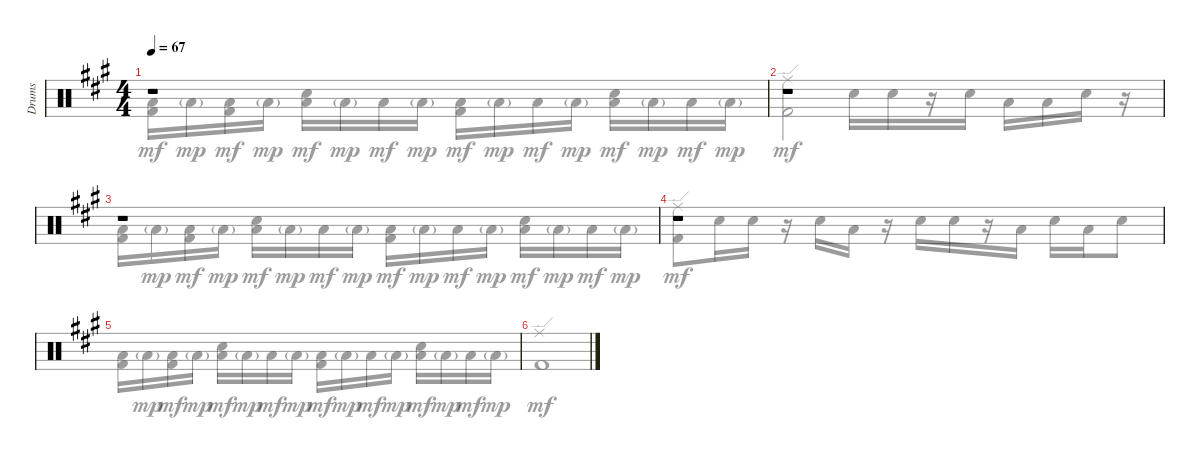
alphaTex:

\bracketExtendMode groupsimilarinstruments
\otherSystemsTrackNameOrientation horizontal
\track ("Drumkit" "Drums") {instrument percussion}
\staff {score}
\articulation defaults
\voice
\ts (4 4)
\tempo 67
\clef neutral
\scale
0.333333
\ks a
r.1{dy mf} |
\scale
0.333333 r.1 |
\scale
0.333333 r.1 |
\scale
0.333333 r.1 |
|
\voice
\clef neutral
\ottava regular
\simile none
\scale
0.333333
\ks a
("Kick (hit) 2"{acc forcenatural} "Low Tom (hit)"{acc forcenatural}).16{dy mf} "Low Tom (hit)"{g acc forcenatural}.16{dy mp} ("Kick (hit) 2"{acc forcenatural} "Low Tom (hit)"{acc forcenatural}).16{dy mf} "Low Tom (hit)"{g acc forcenatural}.16{dy mp} ("Low Tom (hit)"{acc forcenatural} "Snare (hit) 2"{acc forcenatural}).16{dy mf} "Low Tom (hit)"{g acc forcenatural}.16{dy mp} "Low Tom (hit)"{acc forcenatural}.16{dy mf} "Low Tom (hit)"{g acc forcenatural}.16{dy mp} ("Kick (hit) 2"{acc forcenatural} "Low Tom (hit)"{acc forcenatural}).16{dy mf} "Low Tom (hit)"{g acc forcenatural}.16{dy mp} "Low Tom (hit)"{acc forcenatural}.16{dy mf} "Low Tom (hit)"{g acc forcenatural}.16{dy mp} ("Low Tom (hit)"{acc forcenatural} "Snare (hit) 2"{acc forcenatural}).16{dy mf} "Low Tom (hit)"{g acc forcenatural}.16{dy mp} "Low Tom (hit)"{acc forcenatural}.16{dy mf} "Low Tom (hit)"{g acc forcenatural}.16{dy mp} |
\scale
0.333333 ("Kick (hit) 2"{acc forcenatural} "Ride (edge)"{acc forcenatural}).2{dy mf} "Snare (hit) 2"{acc forcenatural}.16 "Snare (hit) 2"{acc forcenatural}.16 r.16 "Snare (hit) 2"{acc forcenatural}.16 "Low Tom (hit)"{acc forcenatural}.16 "Low Tom (hit)"{acc forcenatural}.16 "Snare (hit) 2"{acc forcenatural}.16 r.16 |
\scale
0.333333 ("Kick (hit) 2"{acc forcenatural} "Low Tom (hit)"{acc forcenatural}).16 "Low Tom (hit)"{g acc forcenatural}.16{dy mp} ("Kick (hit) 2"{acc forcenatural} "Low Tom (hit)"{acc forcenatural}).16{dy mf} "Low Tom (hit)"{g acc forcenatural}.16{dy mp} ("Low Tom (hit)"{acc forcenatural} "Snare (hit) 2"{acc forcenatural}).16{dy mf} "Low Tom (hit)"{g acc forcenatural}.16{dy mp} "Low Tom (hit)"{acc forcenatural}.16{dy mf} "Low Tom (hit)"{g acc forcenatural}.16{dy mp} ("Kick (hit) 2"{acc forcenatural} "Low Tom (hit)"{acc forcenatural}).16{dy mf} "Low Tom (hit)"{g acc forcenatural}.16{dy mp} "Low Tom (hit)"{acc forcenatural}.16{dy mf} "Low Tom (hit)"{g acc forcenatural}.16{dy mp} ("Low Tom (hit)"{acc forcenatural} "Snare (hit) 2"{acc forcenatural}).16{dy mf} "Low Tom (hit)"{g acc forcenatural}.16{dy mp} "Low Tom (hit)"{acc forcenatural}.16{dy mf} "Low Tom (hit)"{g acc forcenatural}.16{dy mp} |
\scale
0.333333 ("Kick (hit) 2"{acc forcenatural} "Ride (edge)"{acc forcenatural}).8{dy mf} "Snare (hit) 2"{acc forcenatural}.16 "Snare (hit) 2"{acc forcenatural}.16 r.16 "Snare (hit) 2"{acc forcenatural}.16 "Low Tom (hit)"{acc forcenatural}.16 r.16 "Snare (hit) 2"{acc forcenatural}.16 "Snare (hit) 2"{acc forcenatural}.16 r.16 "Low Tom (hit)"{acc forcenatural}.16 "Snare (hit) 2"{acc forcenatural}.16 "Low Tom (hit)"{acc forcenatural}.16 "Snare (hit) 2"{acc forcenatural}.8 |
("Kick (hit) 2"{acc forcenatural} "Low Tom (hit)"{acc forcenatural}).16 "Low Tom (hit)"{g acc forcenatural}.16{dy mp} ("Kick (hit) 2"{acc forcenatural} "Low Tom (hit)"{acc forcenatural}).16{dy mf} "Low Tom (hit)"{g acc forcenatural}.16{dy mp} ("Low Tom (hit)"{acc forcenatural} "Snare (hit) 2"{acc forcenatural}).16{dy mf} "Low Tom (hit)"{g acc forcenatural}.16{dy mp} "Low Tom (hit)"{acc forcenatural}.16{dy mf} "Low Tom (hit)"{g acc forcenatural}.16{dy mp} ("Kick (hit) 2"{acc forcenatural} "Low Tom (hit)"{acc forcenatural}).16{dy mf} "Low Tom (hit)"{g acc forcenatural}.16{dy mp} "Low Tom (hit)"{acc forcenatural}.16{dy mf} "Low Tom (hit)"{g acc forcenatural}.16{dy mp} ("Low Tom (hit)"{acc forcenatural} "Snare (hit) 2"{acc forcenatural}).16{dy mf} "Low Tom (hit)"{g acc forcenatural}.16{dy mp} "Low Tom (hit)"{acc forcenatural}.16{dy mf} "Low Tom (hit)"{g acc forcenatural}.16{dy mp} |
("Kick (hit) 2"{acc forcenatural} "Ride (edge)"{acc forcenatural}).1{dy mf}
